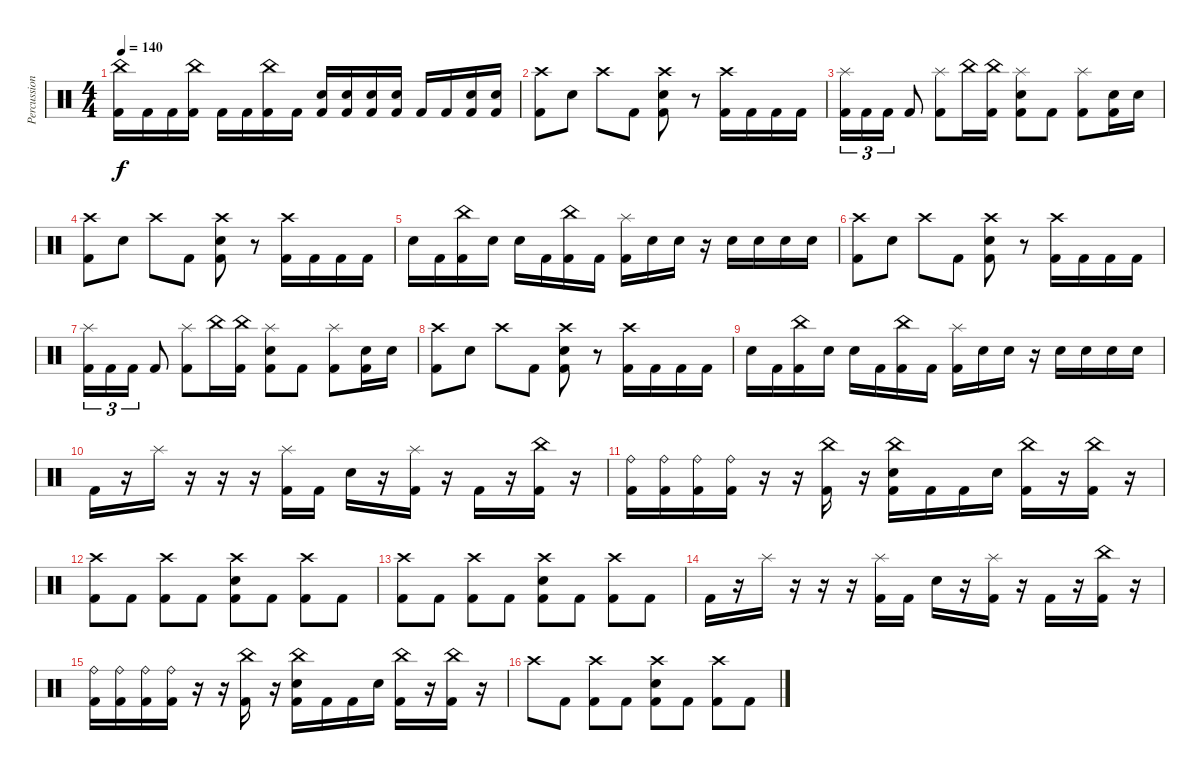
\track ("Percussion" "Percussion") {instrument percussion}
\staff {score}
\articulation defaults
\ts (4 4)
\tempo 140
\clef neutral
\ks c
("China (hit)" "Kick (hit) 2").16{dy f} "Kick (hit) 2".16 "Kick (hit) 2".16 ("China (hit)" "Kick (hit) 2").16 "Kick (hit) 2".16 "Kick (hit) 2".16 ("China (hit)" "Kick (hit) 2").16 "Kick (hit) 2".16 ("Snare (hit) 2" "Kick (hit) 2").16 ("Snare (hit) 2" "Kick (hit) 2").16 ("Snare (hit) 2" "Kick (hit) 2").16 ("Snare (hit) 2" "Kick (hit) 2").16 "Kick (hit) 2".16 "Kick (hit) 2".16 ("Snare (hit) 2" "Kick (hit) 2").16 ("Snare (hit) 2" "Kick (hit) 2").16 |
("Crash high (hit)" "Kick (hit) 2").8 "Snare (hit) 2".8 "Crash high (hit)".8 "Kick (hit) 2".8 ("Crash high (hit)" "Snare (hit) 2" "Kick (hit) 2").8 r.8 ("Crash high (hit)" "Kick (hit) 2").16 "Kick (hit) 2".16 "Kick (hit) 2".16 "Kick (hit) 2".16 |
("Splash (hit)" "Kick (hit) 2").16{tu (3 2)} "Kick (hit) 2".16{tu (3 2)} "Kick (hit) 2".16{tu (3 2)} "Kick (hit) 2".8 ("Splash (hit)" "Kick (hit) 2").8 "China (hit)".16 ("China (hit)" "Kick (hit) 2").16 ("Splash (hit)" "Snare (hit) 2" "Kick (hit) 2").8 "Kick (hit) 2".8 ("Splash (hit)" "Kick (hit) 2").8 ("Snare (hit) 2" "Kick (hit) 2").16 "Snare (hit) 2".16 |
("Crash high (hit)" "Kick (hit) 2").8 "Snare (hit) 2".8 "Crash high (hit)".8 "Kick (hit) 2".8 ("Crash high (hit)" "Snare (hit) 2" "Kick (hit) 2").8 r.8 ("Crash high (hit)" "Kick (hit) 2").16 "Kick (hit) 2".16 "Kick (hit) 2".16 "Kick (hit) 2".16 |
"Snare (hit) 2".16 "Kick (hit) 2".16 ("China (hit)" "Kick (hit) 2").16 "Snare (hit) 2".16 "Snare (hit) 2".16 "Kick (hit) 2".16 ("China (hit)" "Kick (hit) 2").16 "Kick (hit) 2".16 ("Splash (hit)" "Kick (hit) 2").16 "Snare (hit) 2".16 "Snare (hit) 2".16 r.16 "Snare (hit) 2".16 "Snare (hit) 2".16 "Snare (hit) 2".16 "Snare (hit) 2".16 |
("Crash high (hit)" "Kick (hit) 2").8 "Snare (hit) 2".8 "Crash high (hit)".8 "Kick (hit) 2".8 ("Crash high (hit)" "Snare (hit) 2" "Kick (hit) 2").8 r.8 ("Crash high (hit)" "Kick (hit) 2").16 "Kick (hit) 2".16 "Kick (hit) 2".16 "Kick (hit) 2".16 |
("Splash (hit)" "Kick (hit) 2").16{tu (3 2)} "Kick (hit) 2".16{tu (3 2)} "Kick (hit) 2".16{tu (3 2)} "Kick (hit) 2".8 ("Splash (hit)" "Kick (hit) 2").8 "China (hit)".16 ("China (hit)" "Kick (hit) 2").16 ("Splash (hit)" "Snare (hit) 2" "Kick (hit) 2").8 "Kick (hit) 2".8 ("Splash (hit)" "Kick (hit) 2").8 ("Snare (hit) 2" "Kick (hit) 2").16 "Snare (hit) 2".16 |
("Crash high (hit)" "Kick (hit) 2").8 "Snare (hit) 2".8 "Crash high (hit)".8 "Kick (hit) 2".8 ("Crash high (hit)" "Snare (hit) 2" "Kick (hit) 2").8 r.8 ("Crash high (hit)" "Kick (hit) 2").16 "Kick (hit) 2".16 "Kick (hit) 2".16 "Kick (hit) 2".16 |
"Snare (hit) 2".16 "Kick (hit) 2".16 ("China (hit)" "Kick (hit) 2").16 "Snare (hit) 2".16 "Snare (hit) 2".16 "Kick (hit) 2".16 ("China (hit)" "Kick (hit) 2").16 "Kick (hit) 2".16 ("Splash (hit)" "Kick (hit) 2").16 "Snare (hit) 2".16 "Snare (hit) 2".16 r.16 "Snare (hit) 2".16 "Snare (hit) 2".16 "Snare (hit) 2".16 "Snare (hit) 2".16 |
"Kick (hit) 2".16 r.16 "Splash (hit)".16 r.16 r.16 r.16 ("Splash (hit)" "Kick (hit) 2").16 "Kick (hit) 2".16 "Snare (hit) 2".16 r.16 ("Splash (hit)" "Kick (hit) 2").16 r.16 "Kick (hit) 2".16 r.16 ("China (hit)" "Kick (hit) 2").16 r.16 |
("Ride (bell)" "Kick (hit) 2").16 ("Ride (bell)" "Kick (hit) 2").16 ("Ride (bell)" "Kick (hit) 2").16 ("Ride (bell)" "Kick (hit) 2").16 r.16 r.16 ("China (hit)" "Kick (hit) 2").16 r.16 ("China (hit)" "Snare (hit) 2" "Kick (hit) 2").16 "Kick (hit) 2".16 "Kick (hit) 2".16 "Snare (hit) 2".16 ("China (hit)" "Kick (hit) 2").16 r.16 ("China (hit)" "Kick (hit) 2").16 r.16 |
("Crash high (hit)" "Kick (hit) 2").8 "Kick (hit) 2".8 ("Crash high (hit)" "Kick (hit) 2").8 "Kick (hit) 2".8 ("Crash high (hit)" "Snare (hit) 2" "Kick (hit) 2").8 "Kick (hit) 2".8 ("Crash high (hit)" "Kick (hit) 2").8 "Kick (hit) 2".8 |
("Crash high (hit)" "Kick (hit) 2").8 "Kick (hit) 2".8 ("Crash high (hit)" "Kick (hit) 2").8 "Kick (hit) 2".8 ("Crash high (hit)" "Snare (hit) 2" "Kick (hit) 2").8 "Kick (hit) 2".8 ("Crash high (hit)" "Kick (hit) 2").8 "Kick (hit) 2".8 |
"Kick (hit) 2".16 r.16 "Splash (hit)".16 r.16 r.16 r.16 ("Splash (hit)" "Kick (hit) 2").16 "Kick (hit) 2".16 "Snare (hit) 2".16 r.16 ("Splash (hit)" "Kick (hit) 2").16 r.16 "Kick (hit) 2".16 r.16 ("China (hit)" "Kick (hit) 2").16 r.16 |
("Ride (bell)" "Kick (hit) 2").16 ("Ride (bell)" "Kick (hit) 2").16 ("Ride (bell)" "Kick (hit) 2").16 ("Ride (bell)" "Kick (hit) 2").16 r.16 r.16 ("China (hit)" "Kick (hit) 2").16 r.16 ("China (hit)" "Snare (hit) 2" "Kick (hit) 2").16 "Kick (hit) 2".16 "Kick (hit) 2".16 "Snare (hit) 2".16 ("China (hit)" "Kick (hit) 2").16 r.16 ("China (hit)" "Kick (hit) 2").16 r.16 |
"Crash high (hit)".8 "Kick (hit) 2".8 ("Crash high (hit)" "Kick (hit) 2").8 "Kick (hit) 2".8 ("Crash high (hit)" "Snare (hit) 2" "Kick (hit) 2").8 "Kick (hit) 2".8 ("Crash high (hit)" "Kick (hit) 2").8 "Kick (hit) 2".8
